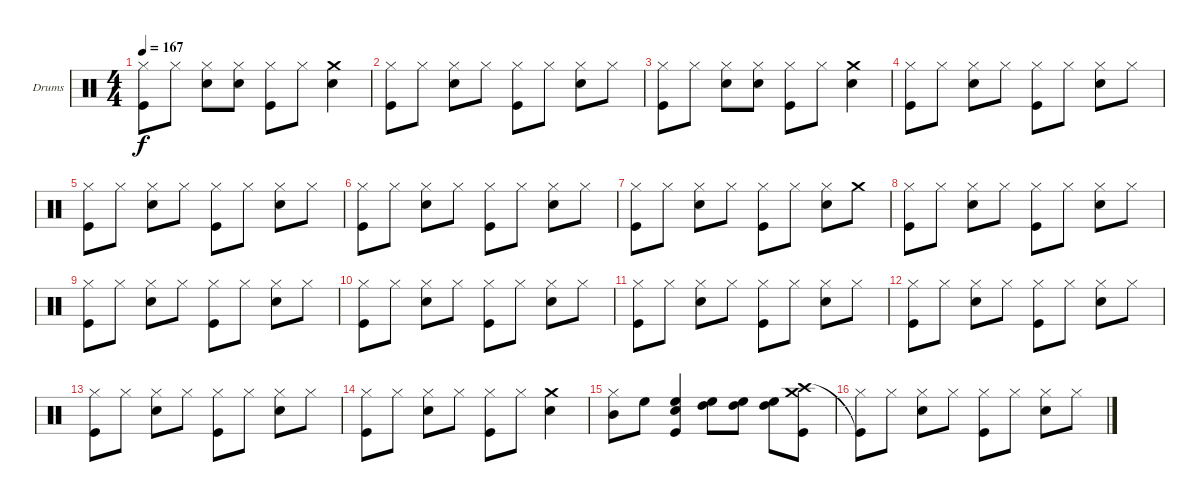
\bracketExtendMode groupsimilarinstruments
\firstSystemTrackNameOrientation horizontal
\otherSystemsTrackNameOrientation horizontal
\track ("Drumkit" "Drums") {instrument percussion}
\staff {score}
\articulation defaults
\ts (4 4)
\tempo 167
\clef neutral
\ks c
("Hi-Hat (closed)" "Kick (hit)").8{dy f} "Hi-Hat (closed)".8 ("Hi-Hat (closed)" "Snare (hit) 2").8 ("Hi-Hat (closed)" "Snare (hit) 2").8 ("Hi-Hat (closed)" "Kick (hit)").8 "Hi-Hat (closed)".8 ("Crash medium (hit)" "Snare (hit) 2").4 |
("Hi-Hat (closed)" "Kick (hit)").8 "Hi-Hat (closed)".8 ("Hi-Hat (closed)" "Snare (hit) 2").8 "Hi-Hat (closed)".8 ("Hi-Hat (closed)" "Kick (hit)").8 "Hi-Hat (closed)".8 ("Hi-Hat (closed)" "Snare (hit) 2").8 "Hi-Hat (closed)".8 |
("Hi-Hat (closed)" "Kick (hit)").8 "Hi-Hat (closed)".8 ("Hi-Hat (closed)" "Snare (hit) 2").8 ("Hi-Hat (closed)" "Snare (hit) 2").8 ("Hi-Hat (closed)" "Kick (hit)").8 "Hi-Hat (closed)".8 ("Crash medium (hit)" "Snare (hit) 2").4 |
("Hi-Hat (closed)" "Kick (hit)").8 "Hi-Hat (closed)".8 ("Hi-Hat (closed)" "Snare (hit) 2").8 "Hi-Hat (closed)".8 ("Hi-Hat (closed)" "Kick (hit)").8 "Hi-Hat (closed)".8 ("Hi-Hat (closed)" "Snare (hit) 2").8 "Hi-Hat (closed)".8 |
("Hi-Hat (closed)" "Kick (hit)").8 "Hi-Hat (closed)".8 ("Hi-Hat (closed)" "Snare (hit) 2").8 "Hi-Hat (closed)".8 ("Hi-Hat (closed)" "Kick (hit)").8 "Hi-Hat (closed)".8 ("Hi-Hat (closed)" "Snare (hit) 2").8 "Hi-Hat (closed)".8 |
("Hi-Hat (closed)" "Kick (hit)").8 "Hi-Hat (closed)".8 ("Hi-Hat (closed)" "Snare (hit) 2").8 "Hi-Hat (closed)".8 ("Hi-Hat (closed)" "Kick (hit)").8 "Hi-Hat (closed)".8 ("Hi-Hat (closed)" "Snare (hit) 2").8 "Hi-Hat (closed)".8 |
("Hi-Hat (closed)" "Kick (hit)").8 "Hi-Hat (closed)".8 ("Hi-Hat (closed)" "Snare (hit) 2").8 "Hi-Hat (closed)".8 ("Hi-Hat (closed)" "Kick (hit)").8 "Hi-Hat (closed)".8 ("Hi-Hat (closed)" "Snare (hit) 2").8 "Crash medium (hit)".8 |
("Hi-Hat (closed)" "Kick (hit)").8 "Hi-Hat (closed)".8 ("Hi-Hat (closed)" "Snare (hit) 2").8 "Hi-Hat (closed)".8 ("Hi-Hat (closed)" "Kick (hit)").8 "Hi-Hat (closed)".8 ("Hi-Hat (closed)" "Snare (hit) 2").8 "Hi-Hat (closed)".8 |
("Hi-Hat (closed)" "Kick (hit)").8 "Hi-Hat (closed)".8 ("Hi-Hat (closed)" "Snare (hit) 2").8 "Hi-Hat (closed)".8 ("Hi-Hat (closed)" "Kick (hit)").8 "Hi-Hat (closed)".8 ("Hi-Hat (closed)" "Snare (hit) 2").8 "Hi-Hat (closed)".8 |
("Hi-Hat (closed)" "Kick (hit)").8 "Hi-Hat (closed)".8 ("Hi-Hat (closed)" "Snare (hit) 2").8 "Hi-Hat (closed)".8 ("Hi-Hat (closed)" "Kick (hit)").8 "Hi-Hat (closed)".8 ("Hi-Hat (closed)" "Snare (hit) 2").8 "Hi-Hat (closed)".8 |
("Hi-Hat (closed)" "Kick (hit)").8 "Hi-Hat (closed)".8 ("Hi-Hat (closed)" "Snare (hit) 2").8 "Hi-Hat (closed)".8 ("Hi-Hat (closed)" "Kick (hit)").8 "Hi-Hat (closed)".8 ("Hi-Hat (closed)" "Snare (hit) 2").8 "Hi-Hat (closed)".8 |
("Hi-Hat (closed)" "Kick (hit)").8 "Hi-Hat (closed)".8 ("Hi-Hat (closed)" "Snare (hit) 2").8 "Hi-Hat (closed)".8 ("Hi-Hat (closed)" "Kick (hit)").8 "Hi-Hat (closed)".8 ("Hi-Hat (closed)" "Snare (hit) 2").8 "Hi-Hat (closed)".8 |
("Hi-Hat (closed)" "Kick (hit)").8 "Hi-Hat (closed)".8 ("Hi-Hat (closed)" "Snare (hit) 2").8 "Hi-Hat (closed)".8 ("Hi-Hat (closed)" "Kick (hit)").8 "Hi-Hat (closed)".8 ("Hi-Hat (closed)" "Snare (hit) 2").8 "Hi-Hat (closed)".8 |
("Hi-Hat (closed)" "Kick (hit)").8 "Hi-Hat (closed)".8 ("Hi-Hat (closed)" "Snare (hit) 2").8 "Hi-Hat (closed)".8 ("Hi-Hat (closed)" "Kick (hit)").8 "Hi-Hat (closed)".8 ("Crash medium (hit)" "Snare (hit) 2").4 |
("Hi-Hat (closed)" "Mid Tom (hit)").8 "High Floor Tom (hit)".8 ("High Floor Tom (hit)" "Snare (hit) 2" "Kick (hit)").4 ("High Floor Tom (hit)" "High Tom (hit)").8 ("High Floor Tom (hit)" "High Tom (hit)").8 ("High Floor Tom (hit)" "High Tom (hit)").8 ("Crash medium (hit)" "Crash high (hit)" "Kick (hit)").8 |
("Hi-Hat (closed)" "Kick (hit)"{t}).8 "Hi-Hat (closed)".8 ("Hi-Hat (closed)" "Snare (hit) 2").8 "Hi-Hat (closed)".8 ("Hi-Hat (closed)" "Kick (hit)").8 "Hi-Hat (closed)".8 ("Hi-Hat (closed)" "Snare (hit) 2").8 "Hi-Hat (closed)".8
